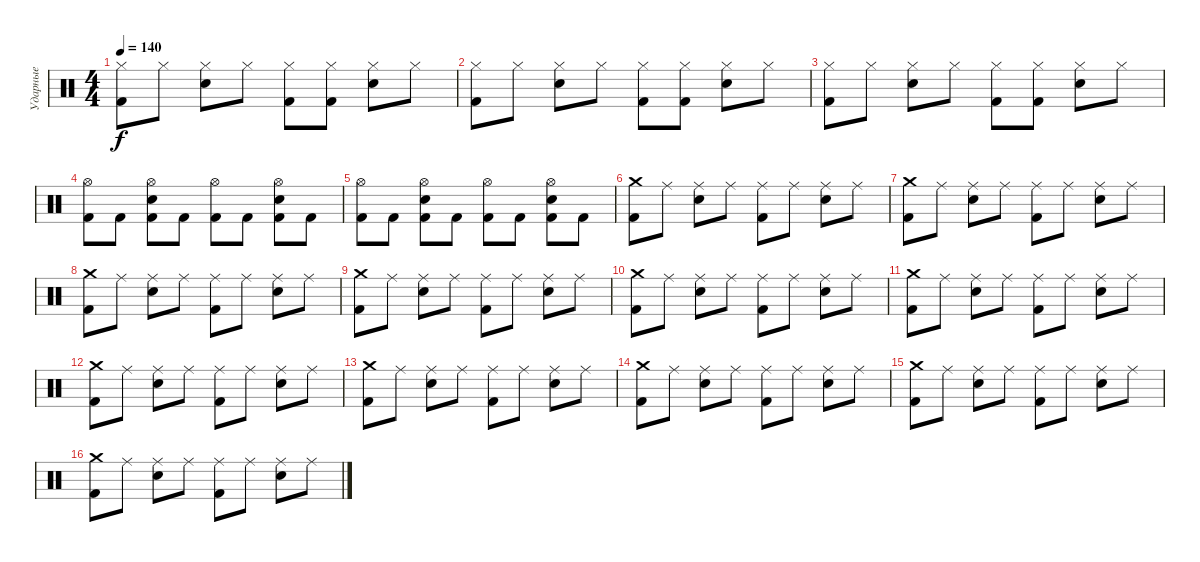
\track ("Ударные" "Ударные") {instrument percussion}
\staff {score}
\articulation defaults
\ts (4 4)
\tempo 140
\clef neutral
\ks c
("Kick (hit) 2" "Hi-Hat (closed)").8{dy f} "Hi-Hat (closed)".8 ("Snare (hit) 2" "Hi-Hat (closed)").8 "Hi-Hat (closed)".8 ("Kick (hit) 2" "Hi-Hat (closed)").8 ("Kick (hit) 2" "Hi-Hat (closed)").8 ("Snare (hit) 2" "Hi-Hat (closed)").8 "Hi-Hat (closed)".8 |
("Kick (hit) 2" "Hi-Hat (closed)").8 "Hi-Hat (closed)".8 ("Snare (hit) 2" "Hi-Hat (closed)").8 "Hi-Hat (closed)".8 ("Kick (hit) 2" "Hi-Hat (closed)").8 ("Kick (hit) 2" "Hi-Hat (closed)").8 ("Snare (hit) 2" "Hi-Hat (closed)").8 "Hi-Hat (closed)".8 |
("Kick (hit) 2" "Hi-Hat (closed)").8 "Hi-Hat (closed)".8 ("Snare (hit) 2" "Hi-Hat (closed)").8 "Hi-Hat (closed)".8 ("Kick (hit) 2" "Hi-Hat (closed)").8 ("Kick (hit) 2" "Hi-Hat (closed)").8 ("Snare (hit) 2" "Hi-Hat (closed)").8 "Hi-Hat (closed)".8 |
("Kick (hit) 2" "Hi-Hat (open)").8 "Kick (hit) 2".8 ("Kick (hit) 2" "Snare (hit) 2" "Hi-Hat (open)").8 "Kick (hit) 2".8 ("Kick (hit) 2" "Hi-Hat (open)").8 "Kick (hit) 2".8 ("Kick (hit) 2" "Snare (hit) 2" "Hi-Hat (open)").8 "Kick (hit) 2".8 |
("Kick (hit) 2" "Hi-Hat (open)").8 "Kick (hit) 2".8 ("Kick (hit) 2" "Snare (hit) 2" "Hi-Hat (open)").8 "Kick (hit) 2".8 ("Kick (hit) 2" "Hi-Hat (open)").8 "Kick (hit) 2".8 ("Kick (hit) 2" "Snare (hit) 2" "Hi-Hat (open)").8 "Kick (hit) 2".8 |
("Kick (hit) 2" "Crash medium (hit)").8 "Ride (middle)".8 ("Snare (hit) 2" "Ride (middle)").8 "Ride (middle)".8 ("Kick (hit) 2" "Ride (middle)").8 "Ride (middle)".8 ("Snare (hit) 2" "Ride (middle)").8 "Ride (middle)".8 |
("Kick (hit) 2" "Crash medium (hit)").8 "Ride (middle)".8 ("Snare (hit) 2" "Ride (middle)").8 "Ride (middle)".8 ("Kick (hit) 2" "Ride (middle)").8 "Ride (middle)".8 ("Snare (hit) 2" "Ride (middle)").8 "Ride (middle)".8 |
("Kick (hit) 2" "Crash medium (hit)").8 "Ride (middle)".8 ("Snare (hit) 2" "Ride (middle)").8 "Ride (middle)".8 ("Kick (hit) 2" "Ride (middle)").8 "Ride (middle)".8 ("Snare (hit) 2" "Ride (middle)").8 "Ride (middle)".8 |
("Kick (hit) 2" "Crash medium (hit)").8 "Ride (middle)".8 ("Snare (hit) 2" "Ride (middle)").8 "Ride (middle)".8 ("Kick (hit) 2" "Ride (middle)").8 "Ride (middle)".8 ("Snare (hit) 2" "Ride (middle)").8 "Ride (middle)".8 |
("Kick (hit) 2" "Crash medium (hit)").8 "Ride (middle)".8 ("Snare (hit) 2" "Ride (middle)").8 "Ride (middle)".8 ("Kick (hit) 2" "Ride (middle)").8 "Ride (middle)".8 ("Snare (hit) 2" "Ride (middle)").8 "Ride (middle)".8 |
("Kick (hit) 2" "Crash medium (hit)").8 "Ride (middle)".8 ("Snare (hit) 2" "Ride (middle)").8 "Ride (middle)".8 ("Kick (hit) 2" "Ride (middle)").8 "Ride (middle)".8 ("Snare (hit) 2" "Ride (middle)").8 "Ride (middle)".8 |
("Kick (hit) 2" "Crash medium (hit)").8 "Ride (middle)".8 ("Snare (hit) 2" "Ride (middle)").8 "Ride (middle)".8 ("Kick (hit) 2" "Ride (middle)").8 "Ride (middle)".8 ("Snare (hit) 2" "Ride (middle)").8 "Ride (middle)".8 |
("Kick (hit) 2" "Crash medium (hit)").8 "Ride (middle)".8 ("Snare (hit) 2" "Ride (middle)").8 "Ride (middle)".8 ("Kick (hit) 2" "Ride (middle)").8 "Ride (middle)".8 ("Snare (hit) 2" "Ride (middle)").8 "Ride (middle)".8 |
("Kick (hit) 2" "Crash medium (hit)").8 "Ride (middle)".8 ("Snare (hit) 2" "Ride (middle)").8 "Ride (middle)".8 ("Kick (hit) 2" "Ride (middle)").8 "Ride (middle)".8 ("Snare (hit) 2" "Ride (middle)").8 "Ride (middle)".8 |
("Kick (hit) 2" "Crash medium (hit)").8 "Ride (middle)".8 ("Snare (hit) 2" "Ride (middle)").8 "Ride (middle)".8 ("Kick (hit) 2" "Ride (middle)").8 "Ride (middle)".8 ("Snare (hit) 2" "Ride (middle)").8 "Ride (middle)".8 |
("Kick (hit) 2" "Crash medium (hit)").8 "Ride (middle)".8 ("Snare (hit) 2" "Ride (middle)").8 "Ride (middle)".8 ("Kick (hit) 2" "Ride (middle)").8 "Ride (middle)".8 ("Snare (hit) 2" "Ride (middle)").8 "Ride (middle)".8
